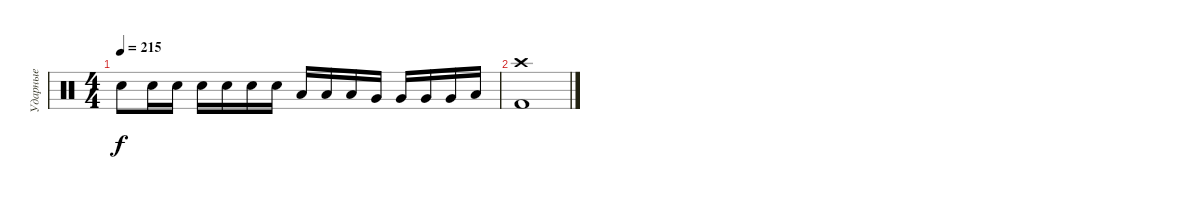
\track ("Ударные" "Ударные") {instrument percussion}
\staff {score}
\articulation defaults
\ts (4 4)
\tempo 215
\clef neutral
\ks c "Snare (hit) 2".8{dy f} "Snare (hit) 2".16 "Snare (hit) 2".16 "Snare (hit) 2".16 "Snare (hit) 2".16 "Snare (hit) 2".16 "Snare (hit) 2".16 "Low Tom (hit)".16 "Low Tom (hit)".16 "Low Tom (hit)".16 "Very Low Tom (hit)".16 "Very Low Tom (hit)".16 "Very Low Tom (hit)".16 "Very Low Tom (hit)".16 "Low Floor Tom (hit)".16
|
("Crash high (hit)" "Kick (hit) 2").1
